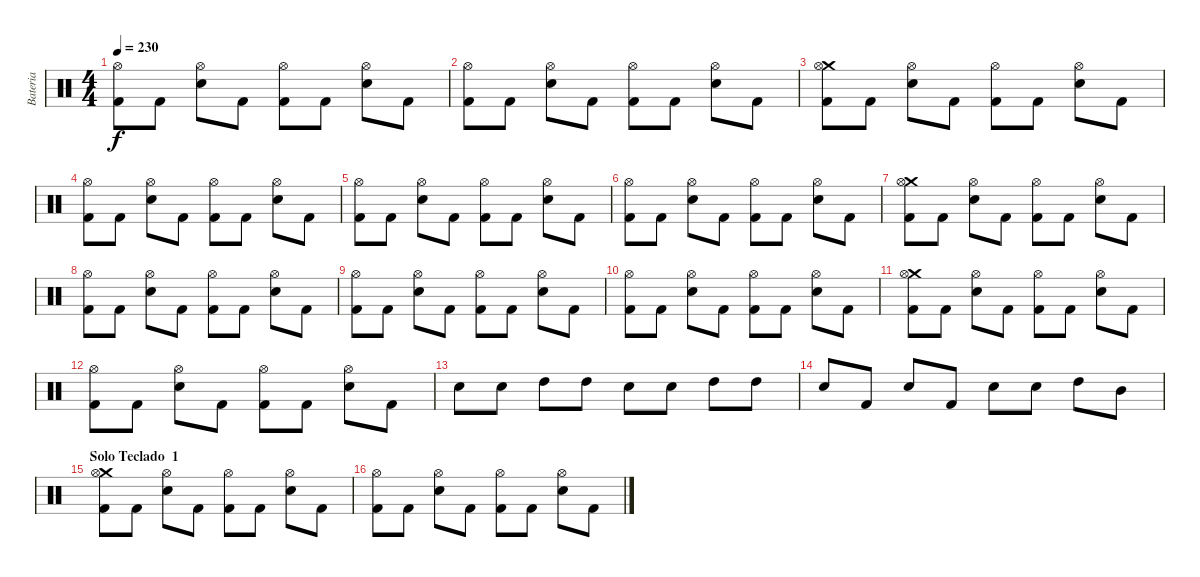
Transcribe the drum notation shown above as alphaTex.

\track ("Bateria" "Bateria") {instrument percussion}
\staff {score}
\articulation defaults
\ts (4 4)
\tempo 230
\clef neutral
\ks c
("Hi-Hat (open)" "Kick (hit) 2").8{dy f} "Kick (hit) 2".8 ("Hi-Hat (open)" "Snare (hit) 2").8 "Kick (hit) 2".8 ("Hi-Hat (open)" "Kick (hit) 2").8 "Kick (hit) 2".8 ("Hi-Hat (open)" "Snare (hit) 2").8 "Kick (hit) 2".8 |
("Hi-Hat (open)" "Kick (hit) 2").8 "Kick (hit) 2".8 ("Hi-Hat (open)" "Snare (hit) 2").8 "Kick (hit) 2".8 ("Hi-Hat (open)" "Kick (hit) 2").8 "Kick (hit) 2".8 ("Hi-Hat (open)" "Snare (hit) 2").8 "Kick (hit) 2".8 |
("Crash medium (hit)" "Hi-Hat (open)" "Kick (hit) 2").8 "Kick (hit) 2".8 ("Hi-Hat (open)" "Snare (hit) 2").8 "Kick (hit) 2".8 ("Hi-Hat (open)" "Kick (hit) 2").8 "Kick (hit) 2".8 ("Hi-Hat (open)" "Snare (hit) 2").8 "Kick (hit) 2".8 |
("Hi-Hat (open)" "Kick (hit) 2").8 "Kick (hit) 2".8 ("Hi-Hat (open)" "Snare (hit) 2").8 "Kick (hit) 2".8 ("Hi-Hat (open)" "Kick (hit) 2").8 "Kick (hit) 2".8 ("Hi-Hat (open)" "Snare (hit) 2").8 "Kick (hit) 2".8 |
("Hi-Hat (open)" "Kick (hit) 2").8 "Kick (hit) 2".8 ("Hi-Hat (open)" "Snare (hit) 2").8 "Kick (hit) 2".8 ("Hi-Hat (open)" "Kick (hit) 2").8 "Kick (hit) 2".8 ("Hi-Hat (open)" "Snare (hit) 2").8 "Kick (hit) 2".8 |
("Hi-Hat (open)" "Kick (hit) 2").8 "Kick (hit) 2".8 ("Hi-Hat (open)" "Snare (hit) 2").8 "Kick (hit) 2".8 ("Hi-Hat (open)" "Kick (hit) 2").8 "Kick (hit) 2".8 ("Hi-Hat (open)" "Snare (hit) 2").8 "Kick (hit) 2".8 |
("Crash medium (hit)" "Hi-Hat (open)" "Kick (hit) 2").8 "Kick (hit) 2".8 ("Hi-Hat (open)" "Snare (hit) 2").8 "Kick (hit) 2".8 ("Hi-Hat (open)" "Kick (hit) 2").8 "Kick (hit) 2".8 ("Hi-Hat (open)" "Snare (hit) 2").8 "Kick (hit) 2".8 |
("Hi-Hat (open)" "Kick (hit) 2").8 "Kick (hit) 2".8 ("Hi-Hat (open)" "Snare (hit) 2").8 "Kick (hit) 2".8 ("Hi-Hat (open)" "Kick (hit) 2").8 "Kick (hit) 2".8 ("Hi-Hat (open)" "Snare (hit) 2").8 "Kick (hit) 2".8 |
("Hi-Hat (open)" "Kick (hit) 2").8 "Kick (hit) 2".8 ("Hi-Hat (open)" "Snare (hit) 2").8 "Kick (hit) 2".8 ("Hi-Hat (open)" "Kick (hit) 2").8 "Kick (hit) 2".8 ("Hi-Hat (open)" "Snare (hit) 2").8 "Kick (hit) 2".8 |
("Hi-Hat (open)" "Kick (hit) 2").8 "Kick (hit) 2".8 ("Hi-Hat (open)" "Snare (hit) 2").8 "Kick (hit) 2".8 ("Hi-Hat (open)" "Kick (hit) 2").8 "Kick (hit) 2".8 ("Hi-Hat (open)" "Snare (hit) 2").8 "Kick (hit) 2".8 |
("Crash medium (hit)" "Hi-Hat (open)" "Kick (hit) 2").8 "Kick (hit) 2".8 ("Hi-Hat (open)" "Snare (hit) 2").8 "Kick (hit) 2".8 ("Hi-Hat (open)" "Kick (hit) 2").8 "Kick (hit) 2".8 ("Hi-Hat (open)" "Snare (hit) 2").8 "Kick (hit) 2".8 |
("Hi-Hat (open)" "Kick (hit) 2").8 "Kick (hit) 2".8 ("Hi-Hat (open)" "Snare (hit) 2").8 "Kick (hit) 2".8 ("Hi-Hat (open)" "Kick (hit) 2").8 "Kick (hit) 2".8 ("Hi-Hat (open)" "Snare (hit) 2").8 "Kick (hit) 2".8 |
"Snare (hit) 2".8 "Snare (hit) 2".8 "High Tom (hit)".8 "High Tom (hit)".8 "Snare (hit) 2".8 "Snare (hit) 2".8 "High Tom (hit)".8 "High Tom (hit)".8 |
"Snare (hit) 2".8 "Kick (hit) 2".8 "Snare (hit) 2".8 "Kick (hit) 2".8 "Snare (hit) 2".8 "Snare (hit) 2".8 "High Tom (hit)".8 "Mid Tom (hit)".8 |
\section ("" "Solo Teclado  1")
("Crash medium (hit)" "Hi-Hat (open)" "Kick (hit) 2").8 "Kick (hit) 2".8 ("Hi-Hat (open)" "Snare (hit) 2").8 "Kick (hit) 2".8 ("Hi-Hat (open)" "Kick (hit) 2").8 "Kick (hit) 2".8 ("Hi-Hat (open)" "Snare (hit) 2").8 "Kick (hit) 2".8 |
("Hi-Hat (open)" "Kick (hit) 2").8 "Kick (hit) 2".8 ("Hi-Hat (open)" "Snare (hit) 2").8 "Kick (hit) 2".8 ("Hi-Hat (open)" "Kick (hit) 2").8 "Kick (hit) 2".8 ("Hi-Hat (open)" "Snare (hit) 2").8 "Kick (hit) 2".8
